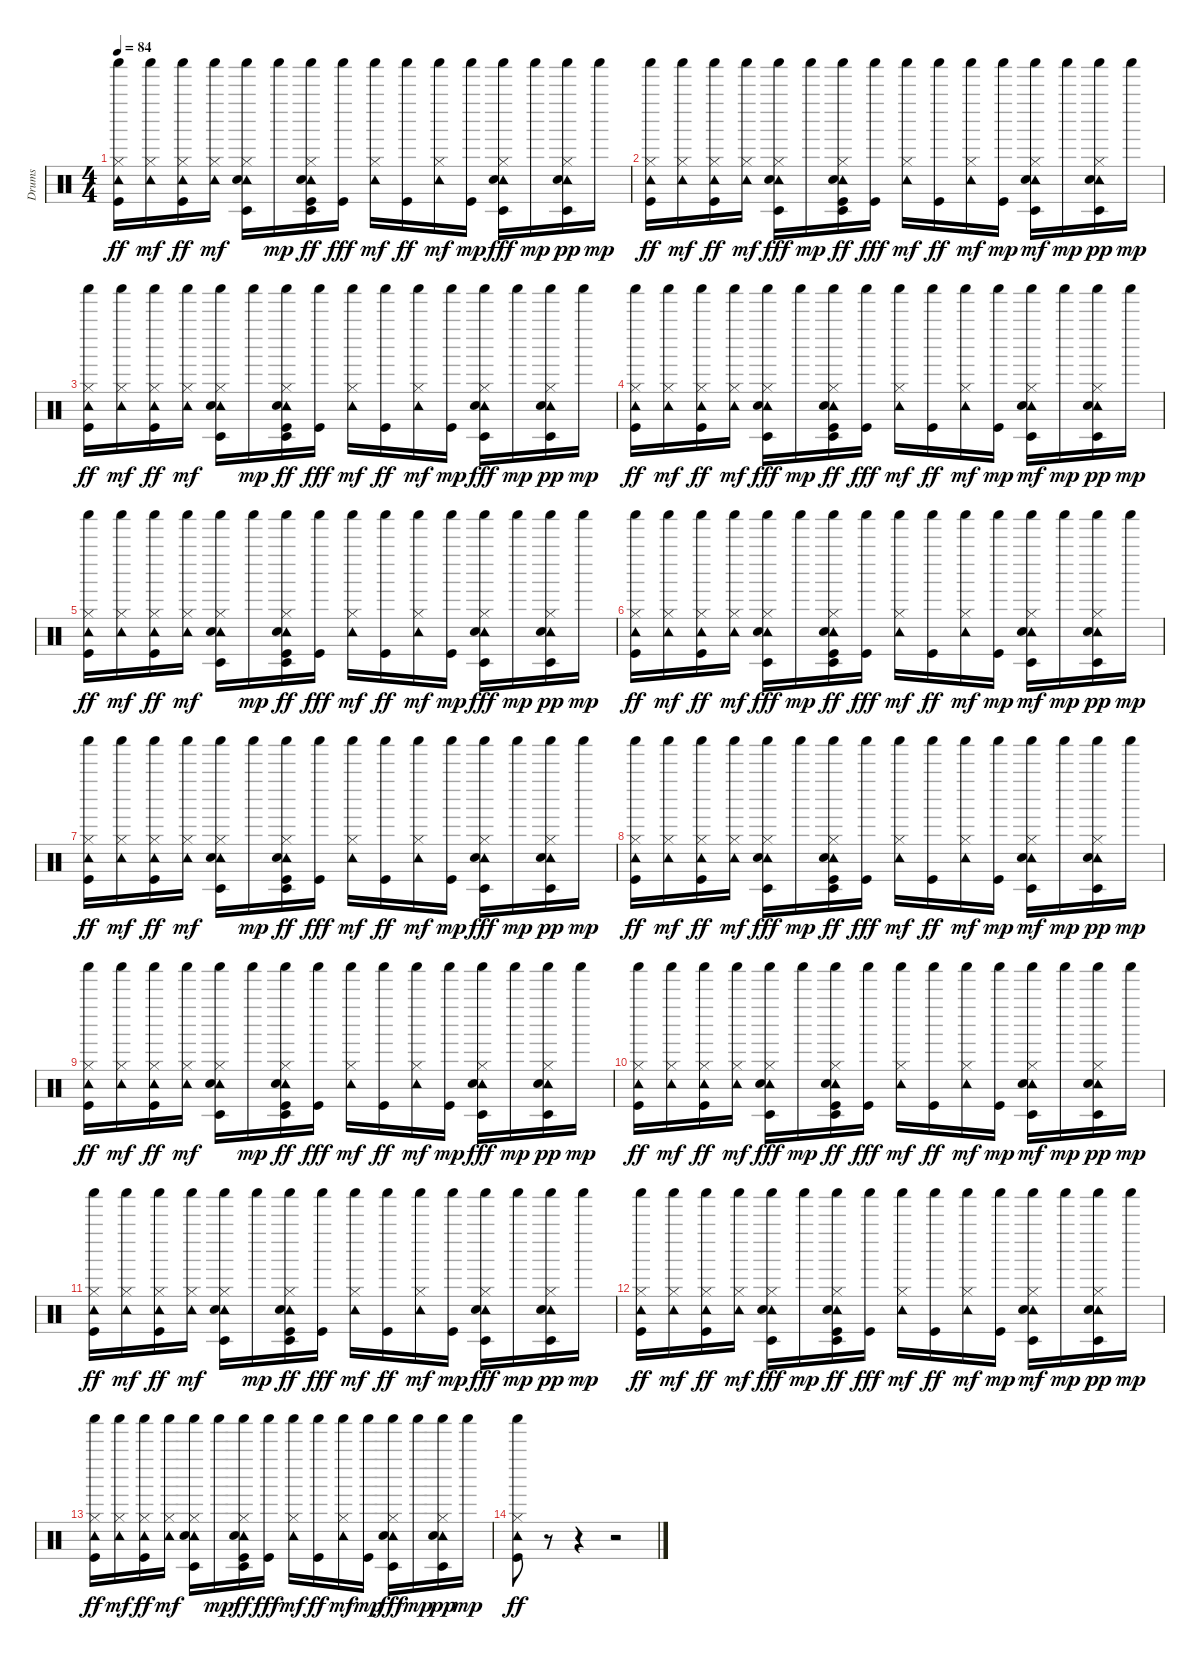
\track ("Drums" "Drums") {instrument percussion}
\staff {score}
\articulation defaults
\ts (4 4)
\tempo 84
\clef neutral
\ks c
("Shaker (hit)" "Tambourine (hit)" "Hi-Hat (closed)" "Kick (hit)").16{dy ff} ("Shaker (hit)" "Tambourine (hit)" "Hi-Hat (closed)").16{dy mf} ("Shaker (hit)" "Tambourine (hit)" "Hi-Hat (closed)" "Kick (hit)").16{dy ff} ("Shaker (hit)" "Tambourine (hit)" "Hi-Hat (closed)").16{dy mf} ("Shaker (hit)" "Tambourine (hit)" "Hi-Hat (closed)" "Timbale low (hit)" "Snare (hit) 2").16 "Shaker (hit)".16{dy mp} ("Shaker (hit)" "Tambourine (hit)" "Hi-Hat (closed)" "Timbale low (hit)" "Snare (hit) 2" "Kick (hit)").16{dy ff} ("Shaker (hit)" "Kick (hit)").16{dy fff} ("Shaker (hit)" "Tambourine (hit)" "Hi-Hat (closed)").16{dy mf} ("Shaker (hit)" "Kick (hit)").16{dy ff} ("Shaker (hit)" "Tambourine (hit)" "Hi-Hat (closed)").16{dy mf} ("Shaker (hit)" "Kick (hit)").16{dy mp} ("Shaker (hit)" "Tambourine (hit)" "Hi-Hat (closed)" "Timbale low (hit)" "Snare (hit) 2").16{dy fff} "Shaker (hit)".16{dy mp} ("Shaker (hit)" "Tambourine (hit)" "Hi-Hat (closed)" "Timbale low (hit)" "Snare (hit) 2").16{dy pp} "Shaker (hit)".16{dy mp} |
("Shaker (hit)" "Tambourine (hit)" "Hi-Hat (closed)" "Kick (hit)").16{dy ff} ("Shaker (hit)" "Tambourine (hit)" "Hi-Hat (closed)").16{dy mf} ("Shaker (hit)" "Tambourine (hit)" "Hi-Hat (closed)" "Kick (hit)").16{dy ff} ("Shaker (hit)" "Tambourine (hit)" "Hi-Hat (closed)").16{dy mf} ("Shaker (hit)" "Tambourine (hit)" "Hi-Hat (closed)" "Timbale low (hit)" "Snare (hit) 2").16{dy fff} "Shaker (hit)".16{dy mp} ("Shaker (hit)" "Tambourine (hit)" "Hi-Hat (closed)" "Timbale low (hit)" "Snare (hit) 2" "Kick (hit)").16{dy ff} ("Shaker (hit)" "Kick (hit)").16{dy fff} ("Shaker (hit)" "Tambourine (hit)" "Hi-Hat (closed)").16{dy mf} ("Shaker (hit)" "Kick (hit)").16{dy ff} ("Shaker (hit)" "Tambourine (hit)" "Hi-Hat (closed)").16{dy mf} ("Shaker (hit)" "Kick (hit)").16{dy mp} ("Shaker (hit)" "Tambourine (hit)" "Hi-Hat (closed)" "Timbale low (hit)" "Snare (hit) 2").16{dy mf} "Shaker (hit)".16{dy mp} ("Shaker (hit)" "Tambourine (hit)" "Hi-Hat (closed)" "Timbale low (hit)" "Snare (hit) 2").16{dy pp} "Shaker (hit)".16{dy mp} |
("Shaker (hit)" "Tambourine (hit)" "Hi-Hat (closed)" "Kick (hit)").16{dy ff} ("Shaker (hit)" "Tambourine (hit)" "Hi-Hat (closed)").16{dy mf} ("Shaker (hit)" "Tambourine (hit)" "Hi-Hat (closed)" "Kick (hit)").16{dy ff} ("Shaker (hit)" "Tambourine (hit)" "Hi-Hat (closed)").16{dy mf} ("Shaker (hit)" "Tambourine (hit)" "Hi-Hat (closed)" "Timbale low (hit)" "Snare (hit) 2").16 "Shaker (hit)".16{dy mp} ("Shaker (hit)" "Tambourine (hit)" "Hi-Hat (closed)" "Timbale low (hit)" "Snare (hit) 2" "Kick (hit)").16{dy ff} ("Shaker (hit)" "Kick (hit)").16{dy fff} ("Shaker (hit)" "Tambourine (hit)" "Hi-Hat (closed)").16{dy mf} ("Shaker (hit)" "Kick (hit)").16{dy ff} ("Shaker (hit)" "Tambourine (hit)" "Hi-Hat (closed)").16{dy mf} ("Shaker (hit)" "Kick (hit)").16{dy mp} ("Shaker (hit)" "Tambourine (hit)" "Hi-Hat (closed)" "Timbale low (hit)" "Snare (hit) 2").16{dy fff} "Shaker (hit)".16{dy mp} ("Shaker (hit)" "Tambourine (hit)" "Hi-Hat (closed)" "Timbale low (hit)" "Snare (hit) 2").16{dy pp} "Shaker (hit)".16{dy mp} |
("Shaker (hit)" "Tambourine (hit)" "Hi-Hat (closed)" "Kick (hit)").16{dy ff} ("Shaker (hit)" "Tambourine (hit)" "Hi-Hat (closed)").16{dy mf} ("Shaker (hit)" "Tambourine (hit)" "Hi-Hat (closed)" "Kick (hit)").16{dy ff} ("Shaker (hit)" "Tambourine (hit)" "Hi-Hat (closed)").16{dy mf} ("Shaker (hit)" "Tambourine (hit)" "Hi-Hat (closed)" "Timbale low (hit)" "Snare (hit) 2").16{dy fff} "Shaker (hit)".16{dy mp} ("Shaker (hit)" "Tambourine (hit)" "Hi-Hat (closed)" "Timbale low (hit)" "Snare (hit) 2" "Kick (hit)").16{dy ff} ("Shaker (hit)" "Kick (hit)").16{dy fff} ("Shaker (hit)" "Tambourine (hit)" "Hi-Hat (closed)").16{dy mf} ("Shaker (hit)" "Kick (hit)").16{dy ff} ("Shaker (hit)" "Tambourine (hit)" "Hi-Hat (closed)").16{dy mf} ("Shaker (hit)" "Kick (hit)").16{dy mp} ("Shaker (hit)" "Tambourine (hit)" "Hi-Hat (closed)" "Timbale low (hit)" "Snare (hit) 2").16{dy mf} "Shaker (hit)".16{dy mp} ("Shaker (hit)" "Tambourine (hit)" "Hi-Hat (closed)" "Timbale low (hit)" "Snare (hit) 2").16{dy pp} "Shaker (hit)".16{dy mp} |
("Shaker (hit)" "Tambourine (hit)" "Hi-Hat (closed)" "Kick (hit)").16{dy ff} ("Shaker (hit)" "Tambourine (hit)" "Hi-Hat (closed)").16{dy mf} ("Shaker (hit)" "Tambourine (hit)" "Hi-Hat (closed)" "Kick (hit)").16{dy ff} ("Shaker (hit)" "Tambourine (hit)" "Hi-Hat (closed)").16{dy mf} ("Shaker (hit)" "Tambourine (hit)" "Hi-Hat (closed)" "Timbale low (hit)" "Snare (hit) 2").16 "Shaker (hit)".16{dy mp} ("Shaker (hit)" "Tambourine (hit)" "Hi-Hat (closed)" "Timbale low (hit)" "Snare (hit) 2" "Kick (hit)").16{dy ff} ("Shaker (hit)" "Kick (hit)").16{dy fff} ("Shaker (hit)" "Tambourine (hit)" "Hi-Hat (closed)").16{dy mf} ("Shaker (hit)" "Kick (hit)").16{dy ff} ("Shaker (hit)" "Tambourine (hit)" "Hi-Hat (closed)").16{dy mf} ("Shaker (hit)" "Kick (hit)").16{dy mp} ("Shaker (hit)" "Tambourine (hit)" "Hi-Hat (closed)" "Timbale low (hit)" "Snare (hit) 2").16{dy fff} "Shaker (hit)".16{dy mp} ("Shaker (hit)" "Tambourine (hit)" "Hi-Hat (closed)" "Timbale low (hit)" "Snare (hit) 2").16{dy pp} "Shaker (hit)".16{dy mp} |
("Shaker (hit)" "Tambourine (hit)" "Hi-Hat (closed)" "Kick (hit)").16{dy ff} ("Shaker (hit)" "Tambourine (hit)" "Hi-Hat (closed)").16{dy mf} ("Shaker (hit)" "Tambourine (hit)" "Hi-Hat (closed)" "Kick (hit)").16{dy ff} ("Shaker (hit)" "Tambourine (hit)" "Hi-Hat (closed)").16{dy mf} ("Shaker (hit)" "Tambourine (hit)" "Hi-Hat (closed)" "Timbale low (hit)" "Snare (hit) 2").16{dy fff} "Shaker (hit)".16{dy mp} ("Shaker (hit)" "Tambourine (hit)" "Hi-Hat (closed)" "Timbale low (hit)" "Snare (hit) 2" "Kick (hit)").16{dy ff} ("Shaker (hit)" "Kick (hit)").16{dy fff} ("Shaker (hit)" "Tambourine (hit)" "Hi-Hat (closed)").16{dy mf} ("Shaker (hit)" "Kick (hit)").16{dy ff} ("Shaker (hit)" "Tambourine (hit)" "Hi-Hat (closed)").16{dy mf} ("Shaker (hit)" "Kick (hit)").16{dy mp} ("Shaker (hit)" "Tambourine (hit)" "Hi-Hat (closed)" "Timbale low (hit)" "Snare (hit) 2").16{dy mf} "Shaker (hit)".16{dy mp} ("Shaker (hit)" "Tambourine (hit)" "Hi-Hat (closed)" "Timbale low (hit)" "Snare (hit) 2").16{dy pp} "Shaker (hit)".16{dy mp} |
("Shaker (hit)" "Tambourine (hit)" "Hi-Hat (closed)" "Kick (hit)").16{dy ff} ("Shaker (hit)" "Tambourine (hit)" "Hi-Hat (closed)").16{dy mf} ("Shaker (hit)" "Tambourine (hit)" "Hi-Hat (closed)" "Kick (hit)").16{dy ff} ("Shaker (hit)" "Tambourine (hit)" "Hi-Hat (closed)").16{dy mf} ("Shaker (hit)" "Tambourine (hit)" "Hi-Hat (closed)" "Timbale low (hit)" "Snare (hit) 2").16 "Shaker (hit)".16{dy mp} ("Shaker (hit)" "Tambourine (hit)" "Hi-Hat (closed)" "Timbale low (hit)" "Snare (hit) 2" "Kick (hit)").16{dy ff} ("Shaker (hit)" "Kick (hit)").16{dy fff} ("Shaker (hit)" "Tambourine (hit)" "Hi-Hat (closed)").16{dy mf} ("Shaker (hit)" "Kick (hit)").16{dy ff} ("Shaker (hit)" "Tambourine (hit)" "Hi-Hat (closed)").16{dy mf} ("Shaker (hit)" "Kick (hit)").16{dy mp} ("Shaker (hit)" "Tambourine (hit)" "Hi-Hat (closed)" "Timbale low (hit)" "Snare (hit) 2").16{dy fff} "Shaker (hit)".16{dy mp} ("Shaker (hit)" "Tambourine (hit)" "Hi-Hat (closed)" "Timbale low (hit)" "Snare (hit) 2").16{dy pp} "Shaker (hit)".16{dy mp} |
("Shaker (hit)" "Tambourine (hit)" "Hi-Hat (closed)" "Kick (hit)").16{dy ff} ("Shaker (hit)" "Tambourine (hit)" "Hi-Hat (closed)").16{dy mf} ("Shaker (hit)" "Tambourine (hit)" "Hi-Hat (closed)" "Kick (hit)").16{dy ff} ("Shaker (hit)" "Tambourine (hit)" "Hi-Hat (closed)").16{dy mf} ("Shaker (hit)" "Tambourine (hit)" "Hi-Hat (closed)" "Timbale low (hit)" "Snare (hit) 2").16{dy fff} "Shaker (hit)".16{dy mp} ("Shaker (hit)" "Tambourine (hit)" "Hi-Hat (closed)" "Timbale low (hit)" "Snare (hit) 2" "Kick (hit)").16{dy ff} ("Shaker (hit)" "Kick (hit)").16{dy fff} ("Shaker (hit)" "Tambourine (hit)" "Hi-Hat (closed)").16{dy mf} ("Shaker (hit)" "Kick (hit)").16{dy ff} ("Shaker (hit)" "Tambourine (hit)" "Hi-Hat (closed)").16{dy mf} ("Shaker (hit)" "Kick (hit)").16{dy mp} ("Shaker (hit)" "Tambourine (hit)" "Hi-Hat (closed)" "Timbale low (hit)" "Snare (hit) 2").16{dy mf} "Shaker (hit)".16{dy mp} ("Shaker (hit)" "Tambourine (hit)" "Hi-Hat (closed)" "Timbale low (hit)" "Snare (hit) 2").16{dy pp} "Shaker (hit)".16{dy mp} |
("Shaker (hit)" "Tambourine (hit)" "Hi-Hat (closed)" "Kick (hit)").16{dy ff} ("Shaker (hit)" "Tambourine (hit)" "Hi-Hat (closed)").16{dy mf} ("Shaker (hit)" "Tambourine (hit)" "Hi-Hat (closed)" "Kick (hit)").16{dy ff} ("Shaker (hit)" "Tambourine (hit)" "Hi-Hat (closed)").16{dy mf} ("Shaker (hit)" "Tambourine (hit)" "Hi-Hat (closed)" "Timbale low (hit)" "Snare (hit) 2").16 "Shaker (hit)".16{dy mp} ("Shaker (hit)" "Tambourine (hit)" "Hi-Hat (closed)" "Timbale low (hit)" "Snare (hit) 2" "Kick (hit)").16{dy ff} ("Shaker (hit)" "Kick (hit)").16{dy fff} ("Shaker (hit)" "Tambourine (hit)" "Hi-Hat (closed)").16{dy mf} ("Shaker (hit)" "Kick (hit)").16{dy ff} ("Shaker (hit)" "Tambourine (hit)" "Hi-Hat (closed)").16{dy mf} ("Shaker (hit)" "Kick (hit)").16{dy mp} ("Shaker (hit)" "Tambourine (hit)" "Hi-Hat (closed)" "Timbale low (hit)" "Snare (hit) 2").16{dy fff} "Shaker (hit)".16{dy mp} ("Shaker (hit)" "Tambourine (hit)" "Hi-Hat (closed)" "Timbale low (hit)" "Snare (hit) 2").16{dy pp} "Shaker (hit)".16{dy mp} |
("Shaker (hit)" "Tambourine (hit)" "Hi-Hat (closed)" "Kick (hit)").16{dy ff} ("Shaker (hit)" "Tambourine (hit)" "Hi-Hat (closed)").16{dy mf} ("Shaker (hit)" "Tambourine (hit)" "Hi-Hat (closed)" "Kick (hit)").16{dy ff} ("Shaker (hit)" "Tambourine (hit)" "Hi-Hat (closed)").16{dy mf} ("Shaker (hit)" "Tambourine (hit)" "Hi-Hat (closed)" "Timbale low (hit)" "Snare (hit) 2").16{dy fff} "Shaker (hit)".16{dy mp} ("Shaker (hit)" "Tambourine (hit)" "Hi-Hat (closed)" "Timbale low (hit)" "Snare (hit) 2" "Kick (hit)").16{dy ff} ("Shaker (hit)" "Kick (hit)").16{dy fff} ("Shaker (hit)" "Tambourine (hit)" "Hi-Hat (closed)").16{dy mf} ("Shaker (hit)" "Kick (hit)").16{dy ff} ("Shaker (hit)" "Tambourine (hit)" "Hi-Hat (closed)").16{dy mf} ("Shaker (hit)" "Kick (hit)").16{dy mp} ("Shaker (hit)" "Tambourine (hit)" "Hi-Hat (closed)" "Timbale low (hit)" "Snare (hit) 2").16{dy mf} "Shaker (hit)".16{dy mp} ("Shaker (hit)" "Tambourine (hit)" "Hi-Hat (closed)" "Timbale low (hit)" "Snare (hit) 2").16{dy pp} "Shaker (hit)".16{dy mp} |
("Shaker (hit)" "Tambourine (hit)" "Hi-Hat (closed)" "Kick (hit)").16{dy ff} ("Shaker (hit)" "Tambourine (hit)" "Hi-Hat (closed)").16{dy mf} ("Shaker (hit)" "Tambourine (hit)" "Hi-Hat (closed)" "Kick (hit)").16{dy ff} ("Shaker (hit)" "Tambourine (hit)" "Hi-Hat (closed)").16{dy mf} ("Shaker (hit)" "Tambourine (hit)" "Hi-Hat (closed)" "Timbale low (hit)" "Snare (hit) 2").16 "Shaker (hit)".16{dy mp} ("Shaker (hit)" "Tambourine (hit)" "Hi-Hat (closed)" "Timbale low (hit)" "Snare (hit) 2" "Kick (hit)").16{dy ff} ("Shaker (hit)" "Kick (hit)").16{dy fff} ("Shaker (hit)" "Tambourine (hit)" "Hi-Hat (closed)").16{dy mf} ("Shaker (hit)" "Kick (hit)").16{dy ff} ("Shaker (hit)" "Tambourine (hit)" "Hi-Hat (closed)").16{dy mf} ("Shaker (hit)" "Kick (hit)").16{dy mp} ("Shaker (hit)" "Tambourine (hit)" "Hi-Hat (closed)" "Timbale low (hit)" "Snare (hit) 2").16{dy fff} "Shaker (hit)".16{dy mp} ("Shaker (hit)" "Tambourine (hit)" "Hi-Hat (closed)" "Timbale low (hit)" "Snare (hit) 2").16{dy pp} "Shaker (hit)".16{dy mp} |
("Shaker (hit)" "Tambourine (hit)" "Hi-Hat (closed)" "Kick (hit)").16{dy ff} ("Shaker (hit)" "Tambourine (hit)" "Hi-Hat (closed)").16{dy mf} ("Shaker (hit)" "Tambourine (hit)" "Hi-Hat (closed)" "Kick (hit)").16{dy ff} ("Shaker (hit)" "Tambourine (hit)" "Hi-Hat (closed)").16{dy mf} ("Shaker (hit)" "Tambourine (hit)" "Hi-Hat (closed)" "Timbale low (hit)" "Snare (hit) 2").16{dy fff} "Shaker (hit)".16{dy mp} ("Shaker (hit)" "Tambourine (hit)" "Hi-Hat (closed)" "Timbale low (hit)" "Snare (hit) 2" "Kick (hit)").16{dy ff} ("Shaker (hit)" "Kick (hit)").16{dy fff} ("Shaker (hit)" "Tambourine (hit)" "Hi-Hat (closed)").16{dy mf} ("Shaker (hit)" "Kick (hit)").16{dy ff} ("Shaker (hit)" "Tambourine (hit)" "Hi-Hat (closed)").16{dy mf} ("Shaker (hit)" "Kick (hit)").16{dy mp} ("Shaker (hit)" "Tambourine (hit)" "Hi-Hat (closed)" "Timbale low (hit)" "Snare (hit) 2").16{dy mf} "Shaker (hit)".16{dy mp} ("Shaker (hit)" "Tambourine (hit)" "Hi-Hat (closed)" "Timbale low (hit)" "Snare (hit) 2").16{dy pp} "Shaker (hit)".16{dy mp} |
("Shaker (hit)" "Tambourine (hit)" "Hi-Hat (closed)" "Kick (hit)").16{dy ff} ("Shaker (hit)" "Tambourine (hit)" "Hi-Hat (closed)").16{dy mf} ("Shaker (hit)" "Tambourine (hit)" "Hi-Hat (closed)" "Kick (hit)").16{dy ff} ("Shaker (hit)" "Tambourine (hit)" "Hi-Hat (closed)").16{dy mf} ("Shaker (hit)" "Tambourine (hit)" "Hi-Hat (closed)" "Timbale low (hit)" "Snare (hit) 2").16 "Shaker (hit)".16{dy mp} ("Shaker (hit)" "Tambourine (hit)" "Hi-Hat (closed)" "Timbale low (hit)" "Snare (hit) 2" "Kick (hit)").16{dy ff} ("Shaker (hit)" "Kick (hit)").16{dy fff} ("Shaker (hit)" "Tambourine (hit)" "Hi-Hat (closed)").16{dy mf} ("Shaker (hit)" "Kick (hit)").16{dy ff} ("Shaker (hit)" "Tambourine (hit)" "Hi-Hat (closed)").16{dy mf} ("Shaker (hit)" "Kick (hit)").16{dy mp} ("Shaker (hit)" "Tambourine (hit)" "Hi-Hat (closed)" "Timbale low (hit)" "Snare (hit) 2").16{dy fff} "Shaker (hit)".16{dy mp} ("Shaker (hit)" "Tambourine (hit)" "Hi-Hat (closed)" "Timbale low (hit)" "Snare (hit) 2").16{dy pp} "Shaker (hit)".16{dy mp} |
("Shaker (hit)" "Tambourine (hit)" "Hi-Hat (closed)" "Kick (hit)").8{dy ff} r.8 r.4 r.2
